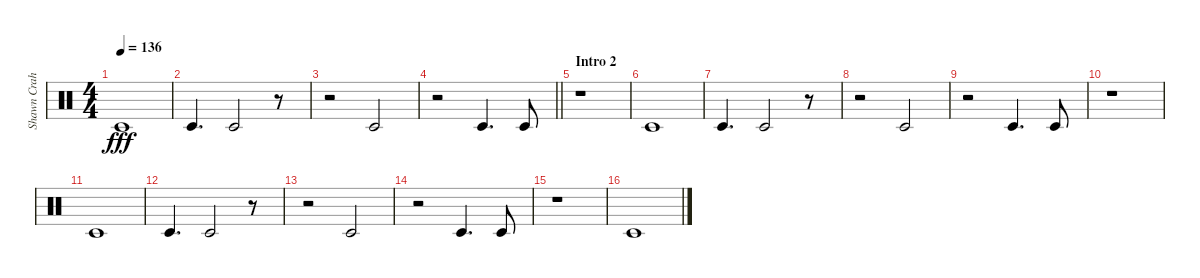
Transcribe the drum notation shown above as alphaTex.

\track ("Shawn Crahan" "Shawn Crah") {instrument percussion}
\staff {score}
\articulation defaults
\ts (4 4)
\tempo 136
\clef neutral
\ks c "Timbale low (hit)".1{dy fff}
|
"Timbale low (hit)".4{d} "Timbale low (hit)".2 r.8 |
r.2 "Timbale low (hit)".2 |
\barLineRight lightlight
r.2 "Timbale low (hit)".4{d} "Timbale low (hit)".8 |
\section ("" "Intro 2")
r.1 |
"Timbale low (hit)".1 |
"Timbale low (hit)".4{d} "Timbale low (hit)".2 r.8 |
r.2 "Timbale low (hit)".2 |
r.2 "Timbale low (hit)".4{d} "Timbale low (hit)".8 |
r.1 |
"Timbale low (hit)".1 |
"Timbale low (hit)".4{d} "Timbale low (hit)".2 r.8 |
r.2 "Timbale low (hit)".2 |
r.2 "Timbale low (hit)".4{d} "Timbale low (hit)".8 |
r.1 |
"Timbale low (hit)".1
